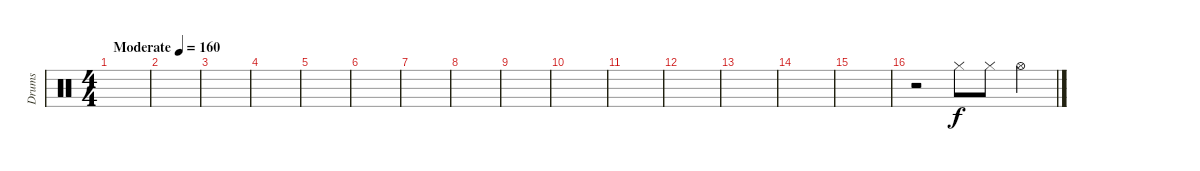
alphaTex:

\track ("Drums" "Drums") {instrument percussion}
\staff {score}
\articulation defaults
\ts (4 4)
\tempo (160 "Moderate")
\clef neutral
\ks c
|
|
|
|
|
|
|
|
|
|
|
|
|
|
|
r.2 "Hi-Hat (closed)".8 "Hi-Hat (closed)".8 "Hi-Hat (open)".4
